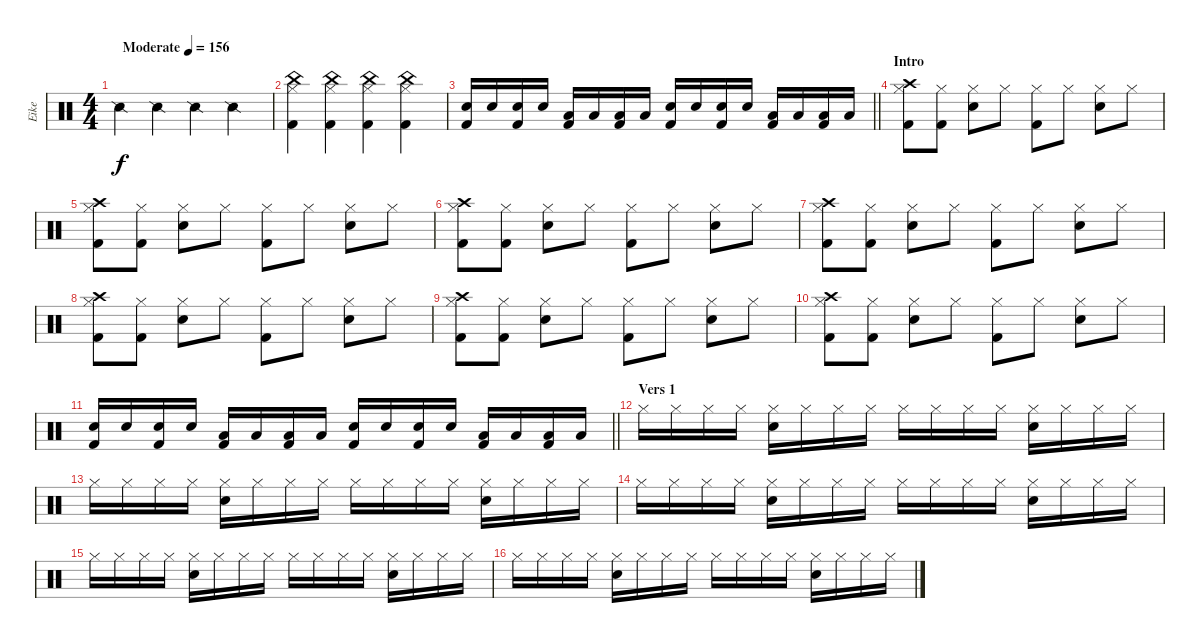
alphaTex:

\track ("Eike" "Eike") {instrument percussion}
\staff {score}
\articulation defaults
\ts (4 4)
\tempo (156 "Moderate")
\clef neutral
\ks c "Snare (side stick) 2".4{dy f} "Snare (side stick) 2".4 "Snare (side stick) 2".4 "Snare (side stick) 2".4
|
("China (hit)" "Hi-Hat (closed)" "Kick (hit) 2").4 ("China (hit)" "Hi-Hat (closed)" "Kick (hit) 2").4 ("China (hit)" "Hi-Hat (closed)" "Kick (hit) 2").4 ("China (hit)" "Hi-Hat (closed)" "Kick (hit) 2").4 |
\barLineRight lightlight
("Snare (hit) 2" "Kick (hit) 2").16 "Snare (hit) 2".16 ("Snare (hit) 2" "Kick (hit) 2").16 "Snare (hit) 2".16 ("Low Tom (hit)" "Kick (hit) 2").16 "Low Tom (hit)".16 ("Low Tom (hit)" "Kick (hit) 2").16 "Low Tom (hit)".16 ("Snare (hit) 2" "Kick (hit) 2").16 "Snare (hit) 2".16 ("Snare (hit) 2" "Kick (hit) 2").16 "Snare (hit) 2".16 ("Low Tom (hit)" "Kick (hit) 2").16 "Low Tom (hit)".16 ("Low Tom (hit)" "Kick (hit) 2").16 "Low Tom (hit)".16 |
\section ("" "Intro ")
("Hi-Hat (closed)" "Kick (hit) 2" "Crash high (hit)").8 ("Hi-Hat (closed)" "Kick (hit) 2").8 ("Hi-Hat (closed)" "Snare (hit) 2").8 "Hi-Hat (closed)".8 ("Hi-Hat (closed)" "Kick (hit) 2").8 "Hi-Hat (closed)".8 ("Hi-Hat (closed)" "Snare (hit) 2").8 "Hi-Hat (closed)".8 |
("Hi-Hat (closed)" "Kick (hit) 2" "Crash high (hit)").8 ("Hi-Hat (closed)" "Kick (hit) 2").8 ("Hi-Hat (closed)" "Snare (hit) 2").8 "Hi-Hat (closed)".8 ("Hi-Hat (closed)" "Kick (hit) 2").8 "Hi-Hat (closed)".8 ("Hi-Hat (closed)" "Snare (hit) 2").8 "Hi-Hat (closed)".8 |
("Hi-Hat (closed)" "Kick (hit) 2" "Crash high (hit)").8 ("Hi-Hat (closed)" "Kick (hit) 2").8 ("Hi-Hat (closed)" "Snare (hit) 2").8 "Hi-Hat (closed)".8 ("Hi-Hat (closed)" "Kick (hit) 2").8 "Hi-Hat (closed)".8 ("Hi-Hat (closed)" "Snare (hit) 2").8 "Hi-Hat (closed)".8 |
("Hi-Hat (closed)" "Kick (hit) 2" "Crash high (hit)").8 ("Hi-Hat (closed)" "Kick (hit) 2").8 ("Hi-Hat (closed)" "Snare (hit) 2").8 "Hi-Hat (closed)".8 ("Hi-Hat (closed)" "Kick (hit) 2").8 "Hi-Hat (closed)".8 ("Hi-Hat (closed)" "Snare (hit) 2").8 "Hi-Hat (closed)".8 |
("Hi-Hat (closed)" "Kick (hit) 2" "Crash high (hit)").8 ("Hi-Hat (closed)" "Kick (hit) 2").8 ("Hi-Hat (closed)" "Snare (hit) 2").8 "Hi-Hat (closed)".8 ("Hi-Hat (closed)" "Kick (hit) 2").8 "Hi-Hat (closed)".8 ("Hi-Hat (closed)" "Snare (hit) 2").8 "Hi-Hat (closed)".8 |
("Hi-Hat (closed)" "Kick (hit) 2" "Crash high (hit)").8 ("Hi-Hat (closed)" "Kick (hit) 2").8 ("Hi-Hat (closed)" "Snare (hit) 2").8 "Hi-Hat (closed)".8 ("Hi-Hat (closed)" "Kick (hit) 2").8 "Hi-Hat (closed)".8 ("Hi-Hat (closed)" "Snare (hit) 2").8 "Hi-Hat (closed)".8 |
("Hi-Hat (closed)" "Kick (hit) 2" "Crash high (hit)").8 ("Hi-Hat (closed)" "Kick (hit) 2").8 ("Hi-Hat (closed)" "Snare (hit) 2").8 "Hi-Hat (closed)".8 ("Hi-Hat (closed)" "Kick (hit) 2").8 "Hi-Hat (closed)".8 ("Hi-Hat (closed)" "Snare (hit) 2").8 "Hi-Hat (closed)".8 |
\barLineRight lightlight
("Snare (hit) 2" "Kick (hit) 2").16 "Snare (hit) 2".16 ("Snare (hit) 2" "Kick (hit) 2").16 "Snare (hit) 2".16 ("Low Tom (hit)" "Kick (hit) 2").16 "Low Tom (hit)".16 ("Low Tom (hit)" "Kick (hit) 2").16 "Low Tom (hit)".16 ("Snare (hit) 2" "Kick (hit) 2").16 "Snare (hit) 2".16 ("Snare (hit) 2" "Kick (hit) 2").16 "Snare (hit) 2".16 ("Low Tom (hit)" "Kick (hit) 2").16 "Low Tom (hit)".16 ("Low Tom (hit)" "Kick (hit) 2").16 "Low Tom (hit)".16 |
\section ("" "Vers 1")
"Hi-Hat (closed)".16 "Hi-Hat (closed)".16 "Hi-Hat (closed)".16 "Hi-Hat (closed)".16 ("Hi-Hat (closed)" "Snare (hit) 2").16 "Hi-Hat (closed)".16 "Hi-Hat (closed)".16 "Hi-Hat (closed)".16 "Hi-Hat (closed)".16 "Hi-Hat (closed)".16 "Hi-Hat (closed)".16 "Hi-Hat (closed)".16 ("Hi-Hat (closed)" "Snare (hit) 2").16 "Hi-Hat (closed)".16 "Hi-Hat (closed)".16 "Hi-Hat (closed)".16 |
"Hi-Hat (closed)".16 "Hi-Hat (closed)".16 "Hi-Hat (closed)".16 "Hi-Hat (closed)".16 ("Hi-Hat (closed)" "Snare (hit) 2").16 "Hi-Hat (closed)".16 "Hi-Hat (closed)".16 "Hi-Hat (closed)".16 "Hi-Hat (closed)".16 "Hi-Hat (closed)".16 "Hi-Hat (closed)".16 "Hi-Hat (closed)".16 ("Hi-Hat (closed)" "Snare (hit) 2").16 "Hi-Hat (closed)".16 "Hi-Hat (closed)".16 "Hi-Hat (closed)".16 |
"Hi-Hat (closed)".16 "Hi-Hat (closed)".16 "Hi-Hat (closed)".16 "Hi-Hat (closed)".16 ("Hi-Hat (closed)" "Snare (hit) 2").16 "Hi-Hat (closed)".16 "Hi-Hat (closed)".16 "Hi-Hat (closed)".16 "Hi-Hat (closed)".16 "Hi-Hat (closed)".16 "Hi-Hat (closed)".16 "Hi-Hat (closed)".16 ("Hi-Hat (closed)" "Snare (hit) 2").16 "Hi-Hat (closed)".16 "Hi-Hat (closed)".16 "Hi-Hat (closed)".16 |
"Hi-Hat (closed)".16 "Hi-Hat (closed)".16 "Hi-Hat (closed)".16 "Hi-Hat (closed)".16 ("Hi-Hat (closed)" "Snare (hit) 2").16 "Hi-Hat (closed)".16 "Hi-Hat (closed)".16 "Hi-Hat (closed)".16 "Hi-Hat (closed)".16 "Hi-Hat (closed)".16 "Hi-Hat (closed)".16 "Hi-Hat (closed)".16 ("Hi-Hat (closed)" "Snare (hit) 2").16 "Hi-Hat (closed)".16 "Hi-Hat (closed)".16 "Hi-Hat (closed)".16 |
"Hi-Hat (closed)".16 "Hi-Hat (closed)".16 "Hi-Hat (closed)".16 "Hi-Hat (closed)".16 ("Hi-Hat (closed)" "Snare (hit) 2").16 "Hi-Hat (closed)".16 "Hi-Hat (closed)".16 "Hi-Hat (closed)".16 "Hi-Hat (closed)".16 "Hi-Hat (closed)".16 "Hi-Hat (closed)".16 "Hi-Hat (closed)".16 ("Hi-Hat (closed)" "Snare (hit) 2").16 "Hi-Hat (closed)".16 "Hi-Hat (closed)".16 "Hi-Hat (closed)".16
